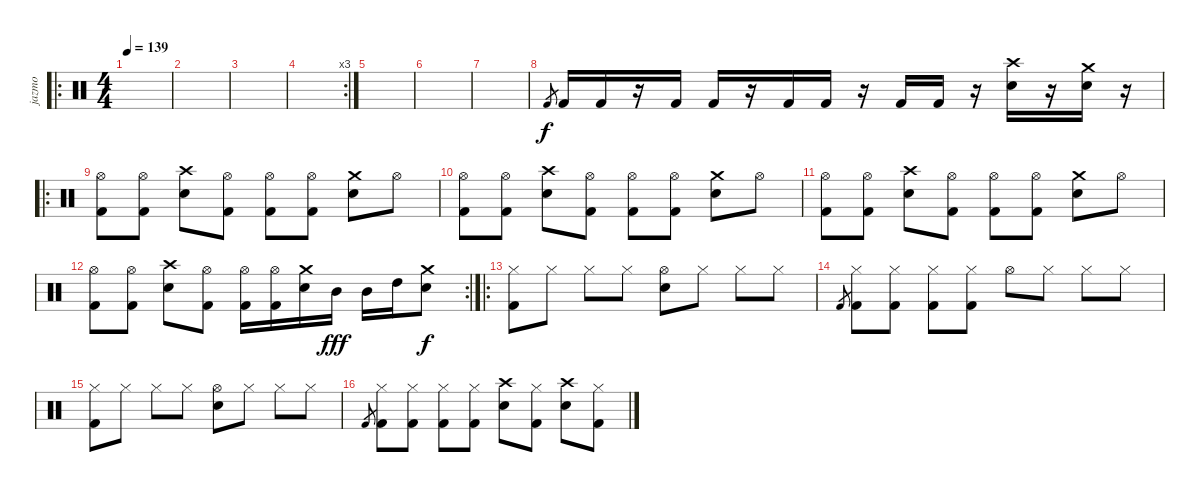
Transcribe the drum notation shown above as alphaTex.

\track ("jazmo" "jazmo") {instrument percussion}
\staff {score}
\articulation defaults
\ro
\ts (4 4)
\tempo 139
\clef neutral
\ks c
|
|
|
\rc 3
|
|
|
|
"Kick (hit) 2".8{gr} "Kick (hit) 2".16 "Kick (hit) 2".16 r.16 "Kick (hit) 2".16 "Kick (hit) 2".16 r.16 "Kick (hit) 2".16 "Kick (hit) 2".16 r.16 "Kick (hit) 2".16 "Kick (hit) 2".16 r.16 ("Crash high (hit)" "Snare (hit) 2").16 r.16 ("Crash medium (hit)" "Snare (hit) 2").16 r.16 |
\ro
("Hi-Hat (open)" "Kick (hit) 2").8 ("Hi-Hat (open)" "Kick (hit) 2").8 ("Crash high (hit)" "Snare (hit) 2").8 ("Hi-Hat (open)" "Kick (hit) 2").8 ("Hi-Hat (open)" "Kick (hit) 2").8 ("Hi-Hat (open)" "Kick (hit) 2").8 ("Crash medium (hit)" "Snare (hit) 2").8 "Hi-Hat (open)".8 |
("Hi-Hat (open)" "Kick (hit) 2").8 ("Hi-Hat (open)" "Kick (hit) 2").8 ("Crash high (hit)" "Snare (hit) 2").8 ("Hi-Hat (open)" "Kick (hit) 2").8 ("Hi-Hat (open)" "Kick (hit) 2").8 ("Hi-Hat (open)" "Kick (hit) 2").8 ("Crash medium (hit)" "Snare (hit) 2").8 "Hi-Hat (open)".8 |
("Hi-Hat (open)" "Kick (hit) 2").8 ("Hi-Hat (open)" "Kick (hit) 2").8 ("Crash high (hit)" "Snare (hit) 2").8 ("Hi-Hat (open)" "Kick (hit) 2").8 ("Hi-Hat (open)" "Kick (hit) 2").8 ("Hi-Hat (open)" "Kick (hit) 2").8 ("Crash medium (hit)" "Snare (hit) 2").8 "Hi-Hat (open)".8 |
\rc 2
("Hi-Hat (open)" "Kick (hit) 2").8 ("Hi-Hat (open)" "Kick (hit) 2").8 ("Crash high (hit)" "Snare (hit) 2").8 ("Hi-Hat (open)" "Kick (hit) 2").8 ("Hi-Hat (open)" "Kick (hit) 2").16 ("Hi-Hat (open)" "Kick (hit) 2").16 ("Crash medium (hit)" "Snare (hit) 2").16 "Mid Tom (hit)".16{dy fff} "Mid Tom (hit)".16 "High Tom (hit)".16 ("Crash medium (hit)" "Snare (hit) 2").8{dy f} |
\ro
("Hi-Hat (closed)" "Kick (hit) 2").8 "Hi-Hat (closed)".8 "Hi-Hat (closed)".8 "Hi-Hat (closed)".8 ("Hi-Hat (open)" "Snare (hit) 2").8 "Hi-Hat (closed)".8 "Hi-Hat (closed)".8 "Hi-Hat (closed)".8 |
"Kick (hit) 2".8{gr} ("Hi-Hat (closed)" "Kick (hit) 2").8 ("Hi-Hat (closed)" "Kick (hit) 2").8 ("Hi-Hat (closed)" "Kick (hit) 2").8 ("Hi-Hat (closed)" "Kick (hit) 2").8 "Hi-Hat (open)".8 "Hi-Hat (closed)".8 "Hi-Hat (closed)".8 "Hi-Hat (closed)".8 |
("Hi-Hat (closed)" "Kick (hit) 2").8 "Hi-Hat (closed)".8 "Hi-Hat (closed)".8 "Hi-Hat (closed)".8 ("Hi-Hat (open)" "Snare (hit) 2").8 "Hi-Hat (closed)".8 "Hi-Hat (closed)".8 "Hi-Hat (closed)".8 |
"Kick (hit) 2".8{gr} ("Hi-Hat (closed)" "Kick (hit) 2").8 ("Hi-Hat (closed)" "Kick (hit) 2").8 ("Hi-Hat (closed)" "Kick (hit) 2").8 ("Hi-Hat (closed)" "Kick (hit) 2").8 ("Crash high (hit)" "Snare (hit) 2").8 ("Hi-Hat (closed)" "Kick (hit) 2").8 ("Crash high (hit)" "Snare (hit) 2").8 ("Hi-Hat (closed)" "Kick (hit) 2").8
